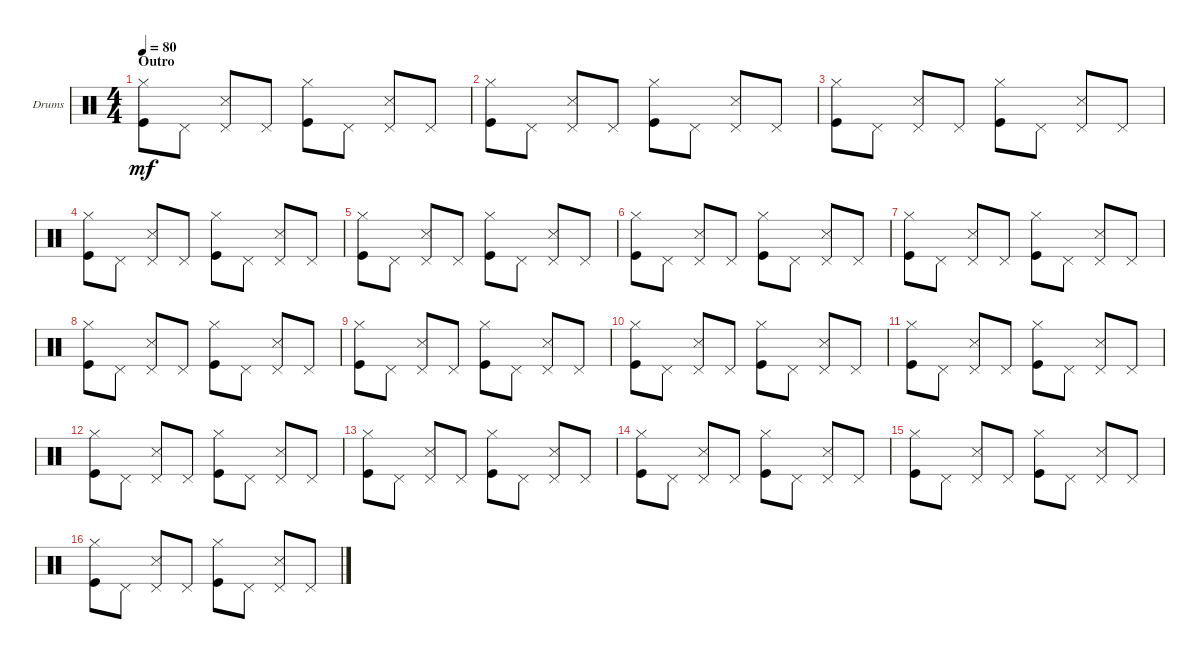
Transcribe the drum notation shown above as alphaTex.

\defaultSystemsLayout 4
\bracketExtendMode groupsimilarinstruments
\firstSystemTrackNameOrientation horizontal
\otherSystemsTrackNameOrientation horizontal
\track ("Drumkit" "Drums") {instrument percussion}
\staff {score}
\articulation defaults
\ts (4 4)
\section ("" "Outro")
\tempo 80
\clef neutral
\ks c
("Hi-Hat (closed)" "Kick (hit)").8{dy mf} "Pedal Hi-Hat (hit)".8 ("Pedal Hi-Hat (hit)" "Snare (side stick) 3").8 "Pedal Hi-Hat (hit)".8 ("Hi-Hat (closed)" "Kick (hit)").8 "Pedal Hi-Hat (hit)".8 ("Pedal Hi-Hat (hit)" "Snare (side stick) 3").8 "Pedal Hi-Hat (hit)".8 |
("Hi-Hat (closed)" "Kick (hit)").8 "Pedal Hi-Hat (hit)".8 ("Pedal Hi-Hat (hit)" "Snare (side stick) 3").8 "Pedal Hi-Hat (hit)".8 ("Hi-Hat (closed)" "Kick (hit)").8 "Pedal Hi-Hat (hit)".8 ("Pedal Hi-Hat (hit)" "Snare (side stick) 3").8 "Pedal Hi-Hat (hit)".8 |
("Hi-Hat (closed)" "Kick (hit)").8 "Pedal Hi-Hat (hit)".8 ("Pedal Hi-Hat (hit)" "Snare (side stick) 3").8 "Pedal Hi-Hat (hit)".8 ("Hi-Hat (closed)" "Kick (hit)").8 "Pedal Hi-Hat (hit)".8 ("Pedal Hi-Hat (hit)" "Snare (side stick) 3").8 "Pedal Hi-Hat (hit)".8 |
("Hi-Hat (closed)" "Kick (hit)").8 "Pedal Hi-Hat (hit)".8 ("Pedal Hi-Hat (hit)" "Snare (side stick) 3").8 "Pedal Hi-Hat (hit)".8 ("Hi-Hat (closed)" "Kick (hit)").8 "Pedal Hi-Hat (hit)".8 ("Pedal Hi-Hat (hit)" "Snare (side stick) 3").8 "Pedal Hi-Hat (hit)".8 |
("Hi-Hat (closed)" "Kick (hit)").8 "Pedal Hi-Hat (hit)".8 ("Pedal Hi-Hat (hit)" "Snare (side stick) 3").8 "Pedal Hi-Hat (hit)".8 ("Hi-Hat (closed)" "Kick (hit)").8 "Pedal Hi-Hat (hit)".8 ("Pedal Hi-Hat (hit)" "Snare (side stick) 3").8 "Pedal Hi-Hat (hit)".8 |
("Hi-Hat (closed)" "Kick (hit)").8 "Pedal Hi-Hat (hit)".8 ("Pedal Hi-Hat (hit)" "Snare (side stick) 3").8 "Pedal Hi-Hat (hit)".8 ("Hi-Hat (closed)" "Kick (hit)").8 "Pedal Hi-Hat (hit)".8 ("Pedal Hi-Hat (hit)" "Snare (side stick) 3").8 "Pedal Hi-Hat (hit)".8 |
("Hi-Hat (closed)" "Kick (hit)").8 "Pedal Hi-Hat (hit)".8 ("Pedal Hi-Hat (hit)" "Snare (side stick) 3").8 "Pedal Hi-Hat (hit)".8 ("Hi-Hat (closed)" "Kick (hit)").8 "Pedal Hi-Hat (hit)".8 ("Pedal Hi-Hat (hit)" "Snare (side stick) 3").8 "Pedal Hi-Hat (hit)".8 |
("Hi-Hat (closed)" "Kick (hit)").8 "Pedal Hi-Hat (hit)".8 ("Pedal Hi-Hat (hit)" "Snare (side stick) 3").8 "Pedal Hi-Hat (hit)".8 ("Hi-Hat (closed)" "Kick (hit)").8 "Pedal Hi-Hat (hit)".8 ("Pedal Hi-Hat (hit)" "Snare (side stick) 3").8 "Pedal Hi-Hat (hit)".8 |
("Hi-Hat (closed)" "Kick (hit)").8 "Pedal Hi-Hat (hit)".8 ("Pedal Hi-Hat (hit)" "Snare (side stick) 3").8 "Pedal Hi-Hat (hit)".8 ("Hi-Hat (closed)" "Kick (hit)").8 "Pedal Hi-Hat (hit)".8 ("Pedal Hi-Hat (hit)" "Snare (side stick) 3").8 "Pedal Hi-Hat (hit)".8 |
("Hi-Hat (closed)" "Kick (hit)").8 "Pedal Hi-Hat (hit)".8 ("Pedal Hi-Hat (hit)" "Snare (side stick) 3").8 "Pedal Hi-Hat (hit)".8 ("Hi-Hat (closed)" "Kick (hit)").8 "Pedal Hi-Hat (hit)".8 ("Pedal Hi-Hat (hit)" "Snare (side stick) 3").8 "Pedal Hi-Hat (hit)".8 |
("Hi-Hat (closed)" "Kick (hit)").8 "Pedal Hi-Hat (hit)".8 ("Pedal Hi-Hat (hit)" "Snare (side stick) 3").8 "Pedal Hi-Hat (hit)".8 ("Hi-Hat (closed)" "Kick (hit)").8 "Pedal Hi-Hat (hit)".8 ("Pedal Hi-Hat (hit)" "Snare (side stick) 3").8 "Pedal Hi-Hat (hit)".8 |
("Hi-Hat (closed)" "Kick (hit)").8 "Pedal Hi-Hat (hit)".8 ("Pedal Hi-Hat (hit)" "Snare (side stick) 3").8 "Pedal Hi-Hat (hit)".8 ("Hi-Hat (closed)" "Kick (hit)").8 "Pedal Hi-Hat (hit)".8 ("Pedal Hi-Hat (hit)" "Snare (side stick) 3").8 "Pedal Hi-Hat (hit)".8 |
("Hi-Hat (closed)" "Kick (hit)").8 "Pedal Hi-Hat (hit)".8 ("Pedal Hi-Hat (hit)" "Snare (side stick) 3").8 "Pedal Hi-Hat (hit)".8 ("Hi-Hat (closed)" "Kick (hit)").8 "Pedal Hi-Hat (hit)".8 ("Pedal Hi-Hat (hit)" "Snare (side stick) 3").8 "Pedal Hi-Hat (hit)".8 |
("Hi-Hat (closed)" "Kick (hit)").8 "Pedal Hi-Hat (hit)".8 ("Pedal Hi-Hat (hit)" "Snare (side stick) 3").8 "Pedal Hi-Hat (hit)".8 ("Hi-Hat (closed)" "Kick (hit)").8 "Pedal Hi-Hat (hit)".8 ("Pedal Hi-Hat (hit)" "Snare (side stick) 3").8 "Pedal Hi-Hat (hit)".8 |
("Hi-Hat (closed)" "Kick (hit)").8 "Pedal Hi-Hat (hit)".8 ("Pedal Hi-Hat (hit)" "Snare (side stick) 3").8 "Pedal Hi-Hat (hit)".8 ("Hi-Hat (closed)" "Kick (hit)").8 "Pedal Hi-Hat (hit)".8 ("Pedal Hi-Hat (hit)" "Snare (side stick) 3").8 "Pedal Hi-Hat (hit)".8 |
("Hi-Hat (closed)" "Kick (hit)").8 "Pedal Hi-Hat (hit)".8 ("Pedal Hi-Hat (hit)" "Snare (side stick) 3").8 "Pedal Hi-Hat (hit)".8 ("Hi-Hat (closed)" "Kick (hit)").8 "Pedal Hi-Hat (hit)".8 ("Pedal Hi-Hat (hit)" "Snare (side stick) 3").8 "Pedal Hi-Hat (hit)".8
